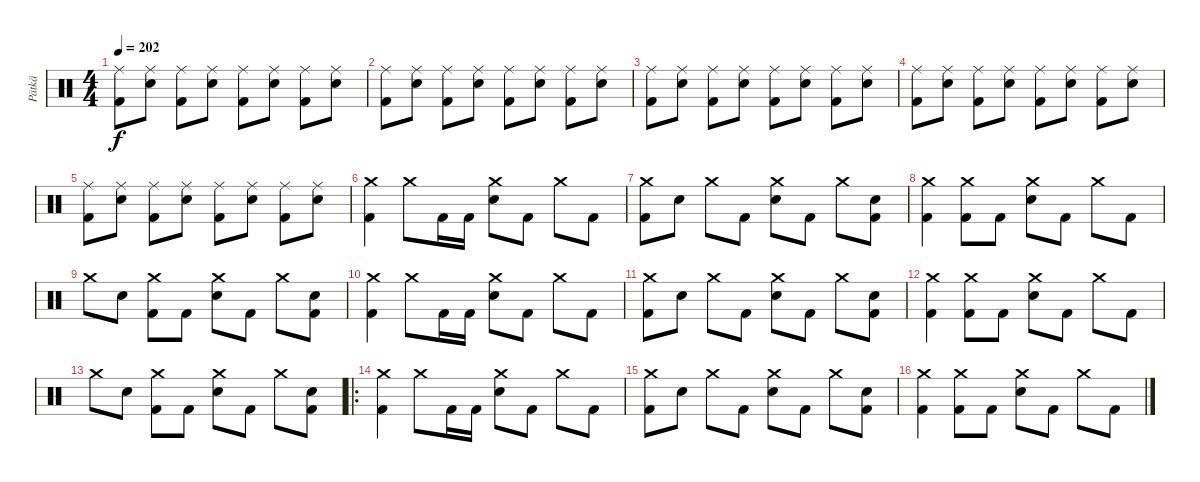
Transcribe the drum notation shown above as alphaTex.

\track ("Pätkä" "Pätkä") {instrument percussion}
\staff {score}
\articulation defaults
\ts (4 4)
\tempo 202
\clef neutral
\ks c
("Ride (middle)" "Kick (hit) 2").8{dy f} ("Ride (middle)" "Electric Snare (hit)").8 ("Ride (middle)" "Kick (hit) 2").8 ("Ride (middle)" "Electric Snare (hit)").8 ("Ride (middle)" "Kick (hit) 2").8 ("Ride (middle)" "Electric Snare (hit)").8 ("Ride (middle)" "Kick (hit) 2").8 ("Ride (middle)" "Electric Snare (hit)").8 |
("Ride (middle)" "Kick (hit) 2").8 ("Ride (middle)" "Electric Snare (hit)").8 ("Ride (middle)" "Kick (hit) 2").8 ("Ride (middle)" "Electric Snare (hit)").8 ("Ride (middle)" "Kick (hit) 2").8 ("Ride (middle)" "Electric Snare (hit)").8 ("Ride (middle)" "Kick (hit) 2").8 ("Ride (middle)" "Electric Snare (hit)").8 |
("Ride (middle)" "Kick (hit) 2").8 ("Ride (middle)" "Electric Snare (hit)").8 ("Ride (middle)" "Kick (hit) 2").8 ("Ride (middle)" "Electric Snare (hit)").8 ("Ride (middle)" "Kick (hit) 2").8 ("Ride (middle)" "Electric Snare (hit)").8 ("Ride (middle)" "Kick (hit) 2").8 ("Ride (middle)" "Electric Snare (hit)").8 |
("Ride (middle)" "Kick (hit) 2").8 ("Ride (middle)" "Electric Snare (hit)").8 ("Ride (middle)" "Kick (hit) 2").8 ("Ride (middle)" "Electric Snare (hit)").8 ("Ride (middle)" "Kick (hit) 2").8 ("Ride (middle)" "Electric Snare (hit)").8 ("Ride (middle)" "Kick (hit) 2").8 ("Ride (middle)" "Electric Snare (hit)").8 |
("Ride (middle)" "Kick (hit) 2").8 ("Ride (middle)" "Electric Snare (hit)").8 ("Ride (middle)" "Kick (hit) 2").8 ("Ride (middle)" "Electric Snare (hit)").8 ("Ride (middle)" "Kick (hit) 2").8 ("Ride (middle)" "Electric Snare (hit)").8 ("Ride (middle)" "Kick (hit) 2").8 ("Ride (middle)" "Electric Snare (hit)").8 |
("Crash medium (hit)" "Kick (hit) 2").4 "Crash medium (hit)".8 "Kick (hit) 2".16 "Kick (hit) 2".16 ("Crash medium (hit)" "Electric Snare (hit)").8 "Kick (hit) 2".8 "Crash medium (hit)".8 "Kick (hit) 2".8 |
("Crash medium (hit)" "Kick (hit) 2").8 "Electric Snare (hit)".8 "Crash medium (hit)".8 "Kick (hit) 2".8 ("Crash medium (hit)" "Electric Snare (hit)").8 "Kick (hit) 2".8 "Crash medium (hit)".8 ("Electric Snare (hit)" "Kick (hit) 2").8 |
("Crash medium (hit)" "Kick (hit) 2").4 ("Crash medium (hit)" "Kick (hit) 2").8 "Kick (hit) 2".8 ("Crash medium (hit)" "Electric Snare (hit)").8 "Kick (hit) 2".8 "Crash medium (hit)".8 "Kick (hit) 2".8 |
"Crash medium (hit)".8 "Electric Snare (hit)".8 ("Crash medium (hit)" "Kick (hit) 2").8 "Kick (hit) 2".8 ("Crash medium (hit)" "Electric Snare (hit)").8 "Kick (hit) 2".8 "Crash medium (hit)".8 ("Electric Snare (hit)" "Kick (hit) 2").8 |
("Crash medium (hit)" "Kick (hit) 2").4 "Crash medium (hit)".8 "Kick (hit) 2".16 "Kick (hit) 2".16 ("Crash medium (hit)" "Electric Snare (hit)").8 "Kick (hit) 2".8 "Crash medium (hit)".8 "Kick (hit) 2".8 |
("Crash medium (hit)" "Kick (hit) 2").8 "Electric Snare (hit)".8 "Crash medium (hit)".8 "Kick (hit) 2".8 ("Crash medium (hit)" "Electric Snare (hit)").8 "Kick (hit) 2".8 "Crash medium (hit)".8 ("Electric Snare (hit)" "Kick (hit) 2").8 |
("Crash medium (hit)" "Kick (hit) 2").4 ("Crash medium (hit)" "Kick (hit) 2").8 "Kick (hit) 2".8 ("Crash medium (hit)" "Electric Snare (hit)").8 "Kick (hit) 2".8 "Crash medium (hit)".8 "Kick (hit) 2".8 |
"Crash medium (hit)".8 "Electric Snare (hit)".8 ("Crash medium (hit)" "Kick (hit) 2").8 "Kick (hit) 2".8 ("Crash medium (hit)" "Electric Snare (hit)").8 "Kick (hit) 2".8 "Crash medium (hit)".8 ("Electric Snare (hit)" "Kick (hit) 2").8 |
\ro
("Crash medium (hit)" "Kick (hit) 2").4 "Crash medium (hit)".8 "Kick (hit) 2".16 "Kick (hit) 2".16 ("Crash medium (hit)" "Electric Snare (hit)").8 "Kick (hit) 2".8 "Crash medium (hit)".8 "Kick (hit) 2".8 |
("Crash medium (hit)" "Kick (hit) 2").8 "Electric Snare (hit)".8 "Crash medium (hit)".8 "Kick (hit) 2".8 ("Crash medium (hit)" "Electric Snare (hit)").8 "Kick (hit) 2".8 "Crash medium (hit)".8 ("Electric Snare (hit)" "Kick (hit) 2").8 |
("Crash medium (hit)" "Kick (hit) 2").4 ("Crash medium (hit)" "Kick (hit) 2").8 "Kick (hit) 2".8 ("Crash medium (hit)" "Electric Snare (hit)").8 "Kick (hit) 2".8 "Crash medium (hit)".8 "Kick (hit) 2".8
